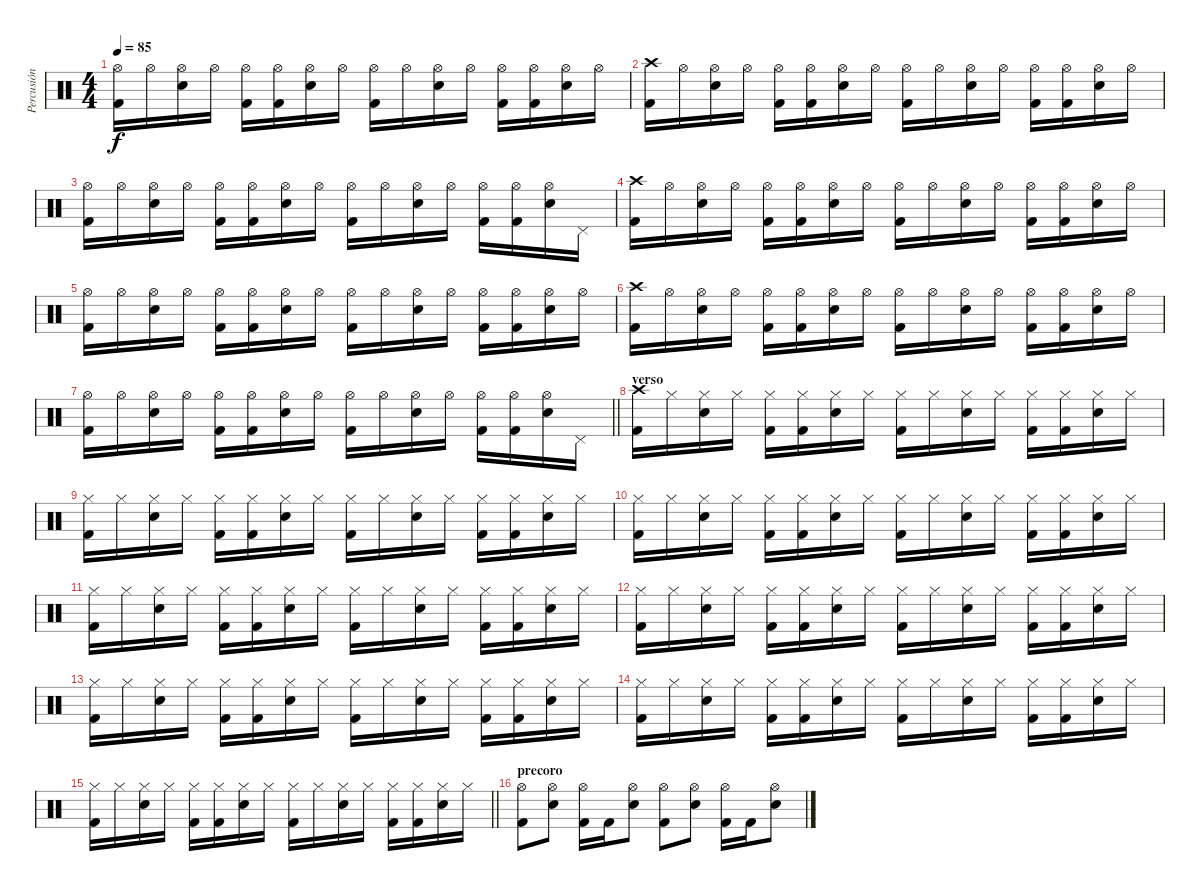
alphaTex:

\track ("Percusión" "Percusión") {instrument percussion}
\staff {score}
\articulation defaults
\ts (4 4)
\tempo 85
\clef neutral
\ks c
("Hi-Hat (open)" "Kick (hit) 2").16{dy f} "Hi-Hat (open)".16 ("Hi-Hat (open)" "Electric Snare (hit)").16 "Hi-Hat (open)".16 ("Hi-Hat (open)" "Kick (hit) 2").16 ("Hi-Hat (open)" "Kick (hit) 2").16 ("Hi-Hat (open)" "Electric Snare (hit)").16 "Hi-Hat (open)".16 ("Hi-Hat (open)" "Kick (hit) 2").16 "Hi-Hat (open)".16 ("Hi-Hat (open)" "Electric Snare (hit)").16 "Hi-Hat (open)".16 ("Hi-Hat (open)" "Kick (hit) 2").16 ("Hi-Hat (open)" "Kick (hit) 2").16 ("Hi-Hat (open)" "Electric Snare (hit)").16 "Hi-Hat (open)".16 |
("Crash high (hit)" "Kick (hit) 2").16 "Hi-Hat (open)".16 ("Hi-Hat (open)" "Electric Snare (hit)").16 "Hi-Hat (open)".16 ("Hi-Hat (open)" "Kick (hit) 2").16 ("Hi-Hat (open)" "Kick (hit) 2").16 ("Hi-Hat (open)" "Electric Snare (hit)").16 "Hi-Hat (open)".16 ("Hi-Hat (open)" "Kick (hit) 2").16 "Hi-Hat (open)".16 ("Hi-Hat (open)" "Electric Snare (hit)").16 "Hi-Hat (open)".16 ("Hi-Hat (open)" "Kick (hit) 2").16 ("Hi-Hat (open)" "Kick (hit) 2").16 ("Hi-Hat (open)" "Electric Snare (hit)").16 "Hi-Hat (open)".16 |
("Hi-Hat (open)" "Kick (hit) 2").16 "Hi-Hat (open)".16 ("Hi-Hat (open)" "Electric Snare (hit)").16 "Hi-Hat (open)".16 ("Hi-Hat (open)" "Kick (hit) 2").16 ("Hi-Hat (open)" "Kick (hit) 2").16 ("Hi-Hat (open)" "Electric Snare (hit)").16 "Hi-Hat (open)".16 ("Hi-Hat (open)" "Kick (hit) 2").16 "Hi-Hat (open)".16 ("Hi-Hat (open)" "Electric Snare (hit)").16 "Hi-Hat (open)".16 ("Hi-Hat (open)" "Kick (hit) 2").16 ("Hi-Hat (open)" "Kick (hit) 2").16 ("Hi-Hat (open)" "Electric Snare (hit)").16 "Pedal Hi-Hat (hit)".16 |
("Crash high (hit)" "Kick (hit) 2").16 "Hi-Hat (open)".16 ("Hi-Hat (open)" "Electric Snare (hit)").16 "Hi-Hat (open)".16 ("Hi-Hat (open)" "Kick (hit) 2").16 ("Hi-Hat (open)" "Kick (hit) 2").16 ("Hi-Hat (open)" "Electric Snare (hit)").16 "Hi-Hat (open)".16 ("Hi-Hat (open)" "Kick (hit) 2").16 "Hi-Hat (open)".16 ("Hi-Hat (open)" "Electric Snare (hit)").16 "Hi-Hat (open)".16 ("Hi-Hat (open)" "Kick (hit) 2").16 ("Hi-Hat (open)" "Kick (hit) 2").16 ("Hi-Hat (open)" "Electric Snare (hit)").16 "Hi-Hat (open)".16 |
("Hi-Hat (open)" "Kick (hit) 2").16 "Hi-Hat (open)".16 ("Hi-Hat (open)" "Electric Snare (hit)").16 "Hi-Hat (open)".16 ("Hi-Hat (open)" "Kick (hit) 2").16 ("Hi-Hat (open)" "Kick (hit) 2").16 ("Hi-Hat (open)" "Electric Snare (hit)").16 "Hi-Hat (open)".16 ("Hi-Hat (open)" "Kick (hit) 2").16 "Hi-Hat (open)".16 ("Hi-Hat (open)" "Electric Snare (hit)").16 "Hi-Hat (open)".16 ("Hi-Hat (open)" "Kick (hit) 2").16 ("Hi-Hat (open)" "Kick (hit) 2").16 ("Hi-Hat (open)" "Electric Snare (hit)").16 "Hi-Hat (open)".16 |
("Crash high (hit)" "Kick (hit) 2").16 "Hi-Hat (open)".16 ("Hi-Hat (open)" "Electric Snare (hit)").16 "Hi-Hat (open)".16 ("Hi-Hat (open)" "Kick (hit) 2").16 ("Hi-Hat (open)" "Kick (hit) 2").16 ("Hi-Hat (open)" "Electric Snare (hit)").16 "Hi-Hat (open)".16 ("Hi-Hat (open)" "Kick (hit) 2").16 "Hi-Hat (open)".16 ("Hi-Hat (open)" "Electric Snare (hit)").16 "Hi-Hat (open)".16 ("Hi-Hat (open)" "Kick (hit) 2").16 ("Hi-Hat (open)" "Kick (hit) 2").16 ("Hi-Hat (open)" "Electric Snare (hit)").16 "Hi-Hat (open)".16 |
\barLineRight lightlight
("Hi-Hat (open)" "Kick (hit) 2").16 "Hi-Hat (open)".16 ("Hi-Hat (open)" "Electric Snare (hit)").16 "Hi-Hat (open)".16 ("Hi-Hat (open)" "Kick (hit) 2").16 ("Hi-Hat (open)" "Kick (hit) 2").16 ("Hi-Hat (open)" "Electric Snare (hit)").16 "Hi-Hat (open)".16 ("Hi-Hat (open)" "Kick (hit) 2").16 "Hi-Hat (open)".16 ("Hi-Hat (open)" "Electric Snare (hit)").16 "Hi-Hat (open)".16 ("Hi-Hat (open)" "Kick (hit) 2").16 ("Hi-Hat (open)" "Kick (hit) 2").16 ("Hi-Hat (open)" "Electric Snare (hit)").16 "Pedal Hi-Hat (hit)".16 |
\section ("" "verso")
("Crash high (hit)" "Kick (hit) 2").16 "Hi-Hat (closed)".16 ("Hi-Hat (closed)" "Electric Snare (hit)").16 "Hi-Hat (closed)".16 ("Hi-Hat (closed)" "Kick (hit) 2").16 ("Hi-Hat (closed)" "Kick (hit) 2").16 ("Hi-Hat (closed)" "Electric Snare (hit)").16 "Hi-Hat (closed)".16 ("Hi-Hat (closed)" "Kick (hit) 2").16 "Hi-Hat (closed)".16 ("Hi-Hat (closed)" "Electric Snare (hit)").16 "Hi-Hat (closed)".16 ("Hi-Hat (closed)" "Kick (hit) 2").16 ("Hi-Hat (closed)" "Kick (hit) 2").16 ("Hi-Hat (closed)" "Electric Snare (hit)").16 "Hi-Hat (closed)".16 |
("Hi-Hat (closed)" "Kick (hit) 2").16 "Hi-Hat (closed)".16 ("Hi-Hat (closed)" "Electric Snare (hit)").16 "Hi-Hat (closed)".16 ("Hi-Hat (closed)" "Kick (hit) 2").16 ("Hi-Hat (closed)" "Kick (hit) 2").16 ("Hi-Hat (closed)" "Electric Snare (hit)").16 "Hi-Hat (closed)".16 ("Hi-Hat (closed)" "Kick (hit) 2").16 "Hi-Hat (closed)".16 ("Hi-Hat (closed)" "Electric Snare (hit)").16 "Hi-Hat (closed)".16 ("Hi-Hat (closed)" "Kick (hit) 2").16 ("Hi-Hat (closed)" "Kick (hit) 2").16 ("Hi-Hat (closed)" "Electric Snare (hit)").16 "Hi-Hat (closed)".16 |
("Hi-Hat (closed)" "Kick (hit) 2").16 "Hi-Hat (closed)".16 ("Hi-Hat (closed)" "Electric Snare (hit)").16 "Hi-Hat (closed)".16 ("Hi-Hat (closed)" "Kick (hit) 2").16 ("Hi-Hat (closed)" "Kick (hit) 2").16 ("Hi-Hat (closed)" "Electric Snare (hit)").16 "Hi-Hat (closed)".16 ("Hi-Hat (closed)" "Kick (hit) 2").16 "Hi-Hat (closed)".16 ("Hi-Hat (closed)" "Electric Snare (hit)").16 "Hi-Hat (closed)".16 ("Hi-Hat (closed)" "Kick (hit) 2").16 ("Hi-Hat (closed)" "Kick (hit) 2").16 ("Hi-Hat (closed)" "Electric Snare (hit)").16 "Hi-Hat (closed)".16 |
("Hi-Hat (closed)" "Kick (hit) 2").16 "Hi-Hat (closed)".16 ("Hi-Hat (closed)" "Electric Snare (hit)").16 "Hi-Hat (closed)".16 ("Hi-Hat (closed)" "Kick (hit) 2").16 ("Hi-Hat (closed)" "Kick (hit) 2").16 ("Hi-Hat (closed)" "Electric Snare (hit)").16 "Hi-Hat (closed)".16 ("Hi-Hat (closed)" "Kick (hit) 2").16 "Hi-Hat (closed)".16 ("Hi-Hat (closed)" "Electric Snare (hit)").16 "Hi-Hat (closed)".16 ("Hi-Hat (closed)" "Kick (hit) 2").16 ("Hi-Hat (closed)" "Kick (hit) 2").16 ("Hi-Hat (closed)" "Electric Snare (hit)").16 "Hi-Hat (closed)".16 |
("Hi-Hat (closed)" "Kick (hit) 2").16 "Hi-Hat (closed)".16 ("Hi-Hat (closed)" "Electric Snare (hit)").16 "Hi-Hat (closed)".16 ("Hi-Hat (closed)" "Kick (hit) 2").16 ("Hi-Hat (closed)" "Kick (hit) 2").16 ("Hi-Hat (closed)" "Electric Snare (hit)").16 "Hi-Hat (closed)".16 ("Hi-Hat (closed)" "Kick (hit) 2").16 "Hi-Hat (closed)".16 ("Hi-Hat (closed)" "Electric Snare (hit)").16 "Hi-Hat (closed)".16 ("Hi-Hat (closed)" "Kick (hit) 2").16 ("Hi-Hat (closed)" "Kick (hit) 2").16 ("Hi-Hat (closed)" "Electric Snare (hit)").16 "Hi-Hat (closed)".16 |
("Hi-Hat (closed)" "Kick (hit) 2").16 "Hi-Hat (closed)".16 ("Hi-Hat (closed)" "Electric Snare (hit)").16 "Hi-Hat (closed)".16 ("Hi-Hat (closed)" "Kick (hit) 2").16 ("Hi-Hat (closed)" "Kick (hit) 2").16 ("Hi-Hat (closed)" "Electric Snare (hit)").16 "Hi-Hat (closed)".16 ("Hi-Hat (closed)" "Kick (hit) 2").16 "Hi-Hat (closed)".16 ("Hi-Hat (closed)" "Electric Snare (hit)").16 "Hi-Hat (closed)".16 ("Hi-Hat (closed)" "Kick (hit) 2").16 ("Hi-Hat (closed)" "Kick (hit) 2").16 ("Hi-Hat (closed)" "Electric Snare (hit)").16 "Hi-Hat (closed)".16 |
("Hi-Hat (closed)" "Kick (hit) 2").16 "Hi-Hat (closed)".16 ("Hi-Hat (closed)" "Electric Snare (hit)").16 "Hi-Hat (closed)".16 ("Hi-Hat (closed)" "Kick (hit) 2").16 ("Hi-Hat (closed)" "Kick (hit) 2").16 ("Hi-Hat (closed)" "Electric Snare (hit)").16 "Hi-Hat (closed)".16 ("Hi-Hat (closed)" "Kick (hit) 2").16 "Hi-Hat (closed)".16 ("Hi-Hat (closed)" "Electric Snare (hit)").16 "Hi-Hat (closed)".16 ("Hi-Hat (closed)" "Kick (hit) 2").16 ("Hi-Hat (closed)" "Kick (hit) 2").16 ("Hi-Hat (closed)" "Electric Snare (hit)").16 "Hi-Hat (closed)".16 |
\barLineRight lightlight
("Hi-Hat (closed)" "Kick (hit) 2").16 "Hi-Hat (closed)".16 ("Hi-Hat (closed)" "Electric Snare (hit)").16 "Hi-Hat (closed)".16 ("Hi-Hat (closed)" "Kick (hit) 2").16 ("Hi-Hat (closed)" "Kick (hit) 2").16 ("Hi-Hat (closed)" "Electric Snare (hit)").16 "Hi-Hat (closed)".16 ("Hi-Hat (closed)" "Kick (hit) 2").16 "Hi-Hat (closed)".16 ("Hi-Hat (closed)" "Electric Snare (hit)").16 "Hi-Hat (closed)".16 ("Hi-Hat (closed)" "Kick (hit) 2").16 ("Hi-Hat (closed)" "Kick (hit) 2").16 ("Hi-Hat (closed)" "Electric Snare (hit)").16 "Hi-Hat (closed)".16 |
\section ("" "precoro")
("Hi-Hat (open)" "Kick (hit) 2").8 ("Hi-Hat (open)" "Electric Snare (hit)").8 ("Hi-Hat (open)" "Kick (hit) 2").16 "Kick (hit) 2".16 ("Hi-Hat (open)" "Electric Snare (hit)").8 ("Hi-Hat (open)" "Kick (hit) 2").8 ("Hi-Hat (open)" "Electric Snare (hit)").8 ("Hi-Hat (open)" "Kick (hit) 2").16 "Kick (hit) 2".16 ("Hi-Hat (open)" "Electric Snare (hit)").8
